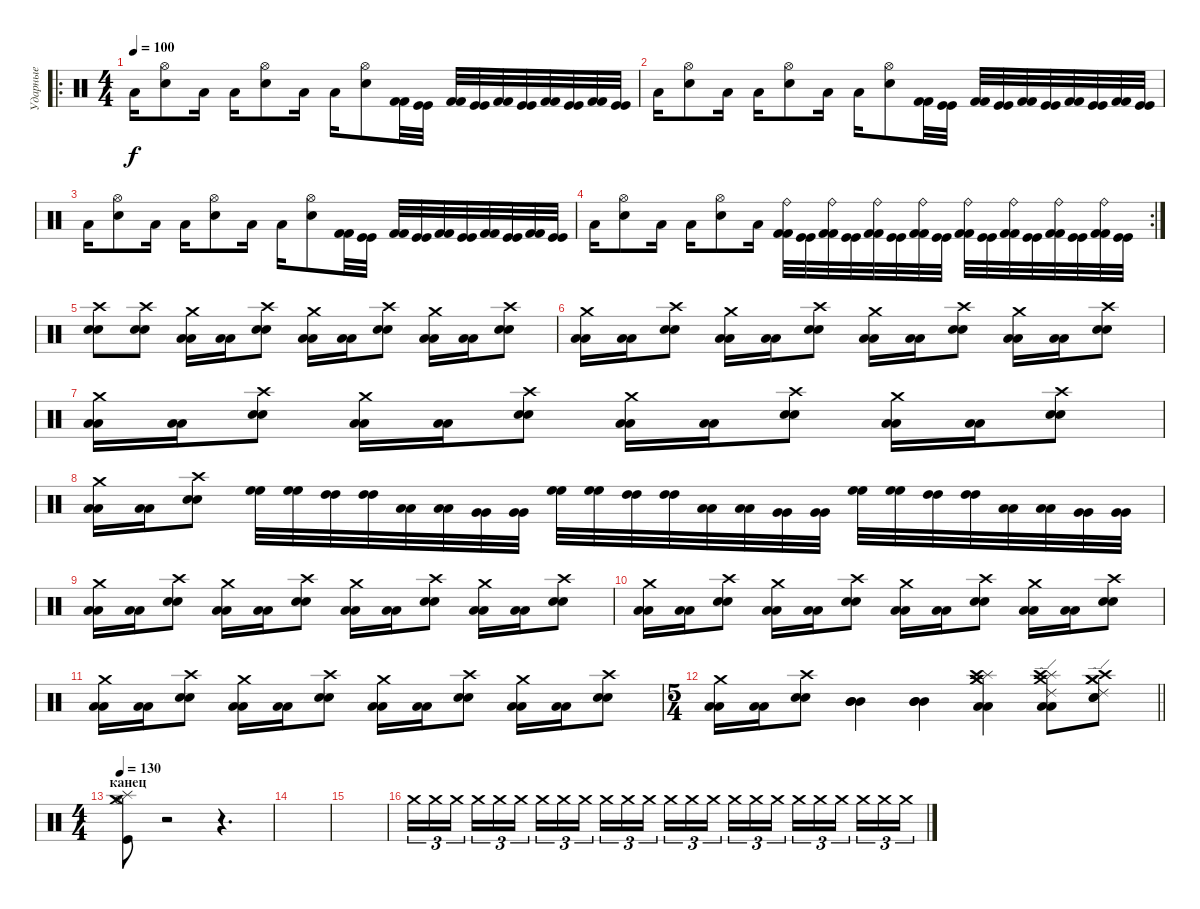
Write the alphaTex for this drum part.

\track ("Ударные" "Ударные") {instrument percussion}
\staff {score}
\articulation defaults
\ro
\ts (4 4)
\tempo 100
\clef neutral
\ks c "Low Tom (hit)".16{dy f}
("Hi-Hat (open)" "Electric Snare (hit)").8 "Low Tom (hit)".16 "Low Tom (hit)".16 ("Hi-Hat (open)" "Electric Snare (hit)").8 "Low Tom (hit)".16 "Low Tom (hit)".16 ("Hi-Hat (open)" "Electric Snare (hit)").8 ("Kick (hit) 2" "Kick (hit) 2").32 ("Kick (hit)" "Kick (hit)").32 ("Kick (hit) 2" "Kick (hit) 2").32 ("Kick (hit)" "Kick (hit)").32 ("Kick (hit) 2" "Kick (hit) 2").32 ("Kick (hit)" "Kick (hit)").32 ("Kick (hit) 2" "Kick (hit) 2").32 ("Kick (hit)" "Kick (hit)").32 ("Kick (hit) 2" "Kick (hit) 2").32 ("Kick (hit)" "Kick (hit)").32 |
"Low Tom (hit)".16 ("Hi-Hat (open)" "Electric Snare (hit)").8 "Low Tom (hit)".16 "Low Tom (hit)".16 ("Hi-Hat (open)" "Electric Snare (hit)").8 "Low Tom (hit)".16 "Low Tom (hit)".16 ("Hi-Hat (open)" "Electric Snare (hit)").8 ("Kick (hit) 2" "Kick (hit) 2").32 ("Kick (hit)" "Kick (hit)").32 ("Kick (hit) 2" "Kick (hit) 2").32 ("Kick (hit)" "Kick (hit)").32 ("Kick (hit) 2" "Kick (hit) 2").32 ("Kick (hit)" "Kick (hit)").32 ("Kick (hit) 2" "Kick (hit) 2").32 ("Kick (hit)" "Kick (hit)").32 ("Kick (hit) 2" "Kick (hit) 2").32 ("Kick (hit)" "Kick (hit)").32 |
"Low Tom (hit)".16 ("Hi-Hat (open)" "Electric Snare (hit)").8 "Low Tom (hit)".16 "Low Tom (hit)".16 ("Hi-Hat (open)" "Electric Snare (hit)").8 "Low Tom (hit)".16 "Low Tom (hit)".16 ("Hi-Hat (open)" "Electric Snare (hit)").8 ("Kick (hit) 2" "Kick (hit) 2").32 ("Kick (hit)" "Kick (hit)").32 ("Kick (hit) 2" "Kick (hit) 2").32 ("Kick (hit)" "Kick (hit)").32 ("Kick (hit) 2" "Kick (hit) 2").32 ("Kick (hit)" "Kick (hit)").32 ("Kick (hit) 2" "Kick (hit) 2").32 ("Kick (hit)" "Kick (hit)").32 ("Kick (hit) 2" "Kick (hit) 2").32 ("Kick (hit)" "Kick (hit)").32 |
\rc 2 "Low Tom (hit)".16
("Hi-Hat (open)" "Electric Snare (hit)").8 "Low Tom (hit)".16 "Low Tom (hit)".16 ("Hi-Hat (open)" "Electric Snare (hit)").8 "Low Tom (hit)".16 ("Ride (bell)" "Kick (hit) 2" "Kick (hit) 2").32 ("Kick (hit)" "Kick (hit)").32 ("Ride (bell)" "Kick (hit) 2" "Kick (hit) 2").32 ("Kick (hit)" "Kick (hit)").32 ("Ride (bell)" "Kick (hit) 2" "Kick (hit) 2").32 ("Kick (hit)" "Kick (hit)").32 ("Ride (bell)" "Kick (hit) 2" "Kick (hit) 2").32 ("Kick (hit)" "Kick (hit)").32 ("Ride (bell)" "Kick (hit) 2" "Kick (hit) 2").32 ("Kick (hit)" "Kick (hit)").32 ("Ride (bell)" "Kick (hit) 2" "Kick (hit) 2").32 ("Kick (hit)" "Kick (hit)").32 ("Ride (bell)" "Kick (hit) 2" "Kick (hit) 2").32 ("Kick (hit)" "Kick (hit)").32 ("Ride (bell)" "Kick (hit) 2" "Kick (hit) 2").32 ("Kick (hit)" "Kick (hit)").32 |
("Crash high (hit)" "Electric Snare (hit)" "Electric Snare (hit)").8 ("Crash high (hit)" "Electric Snare (hit)" "Electric Snare (hit)").8 ("Crash medium (hit)" "Low Tom (hit)" "Low Tom (hit)").16 ("Low Tom (hit)" "Low Tom (hit)").16 ("Crash high (hit)" "Electric Snare (hit)" "Electric Snare (hit)").8 ("Crash medium (hit)" "Low Tom (hit)" "Low Tom (hit)").16 ("Low Tom (hit)" "Low Tom (hit)").16 ("Crash high (hit)" "Electric Snare (hit)" "Electric Snare (hit)").8 ("Crash medium (hit)" "Low Tom (hit)" "Low Tom (hit)").16 ("Low Tom (hit)" "Low Tom (hit)").16 ("Crash high (hit)" "Electric Snare (hit)" "Electric Snare (hit)").8 |
("Crash medium (hit)" "Low Tom (hit)" "Low Tom (hit)").16 ("Low Tom (hit)" "Low Tom (hit)").16 ("Crash high (hit)" "Electric Snare (hit)" "Electric Snare (hit)").8 ("Crash medium (hit)" "Low Tom (hit)" "Low Tom (hit)").16 ("Low Tom (hit)" "Low Tom (hit)").16 ("Crash high (hit)" "Electric Snare (hit)" "Electric Snare (hit)").8 ("Crash medium (hit)" "Low Tom (hit)" "Low Tom (hit)").16 ("Low Tom (hit)" "Low Tom (hit)").16 ("Crash high (hit)" "Electric Snare (hit)" "Electric Snare (hit)").8 ("Crash medium (hit)" "Low Tom (hit)" "Low Tom (hit)").16 ("Low Tom (hit)" "Low Tom (hit)").16 ("Crash high (hit)" "Electric Snare (hit)" "Electric Snare (hit)").8 |
("Crash medium (hit)" "Low Tom (hit)" "Low Tom (hit)").16 ("Low Tom (hit)" "Low Tom (hit)").16 ("Crash high (hit)" "Electric Snare (hit)" "Electric Snare (hit)").8 ("Crash medium (hit)" "Low Tom (hit)" "Low Tom (hit)").16 ("Low Tom (hit)" "Low Tom (hit)").16 ("Crash high (hit)" "Electric Snare (hit)" "Electric Snare (hit)").8 ("Crash medium (hit)" "Low Tom (hit)" "Low Tom (hit)").16 ("Low Tom (hit)" "Low Tom (hit)").16 ("Crash high (hit)" "Electric Snare (hit)" "Electric Snare (hit)").8 ("Crash medium (hit)" "Low Tom (hit)" "Low Tom (hit)").16 ("Low Tom (hit)" "Low Tom (hit)").16 ("Crash high (hit)" "Electric Snare (hit)" "Electric Snare (hit)").8 |
("Crash medium (hit)" "Low Tom (hit)" "Low Tom (hit)").16 ("Low Tom (hit)" "Low Tom (hit)").16 ("Crash high (hit)" "Electric Snare (hit)" "Electric Snare (hit)").8 ("High Floor Tom (hit)" "High Floor Tom (hit)").32 ("High Floor Tom (hit)" "High Floor Tom (hit)").32 ("High Tom (hit)" "High Tom (hit)").32 ("High Tom (hit)" "High Tom (hit)").32 ("Low Tom (hit)" "Low Tom (hit)").32 ("Low Tom (hit)" "Low Tom (hit)").32 ("Very Low Tom (hit)" "Very Low Tom (hit)").32 ("Very Low Tom (hit)" "Very Low Tom (hit)").32 ("High Floor Tom (hit)" "High Floor Tom (hit)").32 ("High Floor Tom (hit)" "High Floor Tom (hit)").32 ("High Tom (hit)" "High Tom (hit)").32 ("High Tom (hit)" "High Tom (hit)").32 ("Low Tom (hit)" "Low Tom (hit)").32 ("Low Tom (hit)" "Low Tom (hit)").32 ("Very Low Tom (hit)" "Very Low Tom (hit)").32 ("Very Low Tom (hit)" "Very Low Tom (hit)").32 ("High Floor Tom (hit)" "High Floor Tom (hit)").32 ("High Floor Tom (hit)" "High Floor Tom (hit)").32 ("High Tom (hit)" "High Tom (hit)").32 ("High Tom (hit)" "High Tom (hit)").32 ("Low Tom (hit)" "Low Tom (hit)").32 ("Low Tom (hit)" "Low Tom (hit)").32 ("Very Low Tom (hit)" "Very Low Tom (hit)").32 ("Very Low Tom (hit)" "Very Low Tom (hit)").32 |
("Crash medium (hit)" "Low Tom (hit)" "Low Tom (hit)").16 ("Low Tom (hit)" "Low Tom (hit)").16 ("Crash high (hit)" "Electric Snare (hit)" "Electric Snare (hit)").8 ("Crash medium (hit)" "Low Tom (hit)" "Low Tom (hit)").16 ("Low Tom (hit)" "Low Tom (hit)").16 ("Crash high (hit)" "Electric Snare (hit)" "Electric Snare (hit)").8 ("Crash medium (hit)" "Low Tom (hit)" "Low Tom (hit)").16 ("Low Tom (hit)" "Low Tom (hit)").16 ("Crash high (hit)" "Electric Snare (hit)" "Electric Snare (hit)").8 ("Crash medium (hit)" "Low Tom (hit)" "Low Tom (hit)").16 ("Low Tom (hit)" "Low Tom (hit)").16 ("Crash high (hit)" "Electric Snare (hit)" "Electric Snare (hit)").8 |
("Crash medium (hit)" "Low Tom (hit)" "Low Tom (hit)").16 ("Low Tom (hit)" "Low Tom (hit)").16 ("Crash high (hit)" "Electric Snare (hit)" "Electric Snare (hit)").8 ("Crash medium (hit)" "Low Tom (hit)" "Low Tom (hit)").16 ("Low Tom (hit)" "Low Tom (hit)").16 ("Crash high (hit)" "Electric Snare (hit)" "Electric Snare (hit)").8 ("Crash medium (hit)" "Low Tom (hit)" "Low Tom (hit)").16 ("Low Tom (hit)" "Low Tom (hit)").16 ("Crash high (hit)" "Electric Snare (hit)" "Electric Snare (hit)").8 ("Crash medium (hit)" "Low Tom (hit)" "Low Tom (hit)").16 ("Low Tom (hit)" "Low Tom (hit)").16 ("Crash high (hit)" "Electric Snare (hit)" "Electric Snare (hit)").8 |
("Crash medium (hit)" "Low Tom (hit)" "Low Tom (hit)").16 ("Low Tom (hit)" "Low Tom (hit)").16 ("Crash high (hit)" "Electric Snare (hit)" "Electric Snare (hit)").8 ("Crash medium (hit)" "Low Tom (hit)" "Low Tom (hit)").16 ("Low Tom (hit)" "Low Tom (hit)").16 ("Crash high (hit)" "Electric Snare (hit)" "Electric Snare (hit)").8 ("Crash medium (hit)" "Low Tom (hit)" "Low Tom (hit)").16 ("Low Tom (hit)" "Low Tom (hit)").16 ("Crash high (hit)" "Electric Snare (hit)" "Electric Snare (hit)").8 ("Crash medium (hit)" "Low Tom (hit)" "Low Tom (hit)").16 ("Low Tom (hit)" "Low Tom (hit)").16 ("Crash high (hit)" "Electric Snare (hit)" "Electric Snare (hit)").8 |
\ts (5 4)
\barLineRight lightlight
("Crash medium (hit)" "Low Tom (hit)" "Low Tom (hit)").16 ("Low Tom (hit)" "Low Tom (hit)").16 ("Crash high (hit)" "Electric Snare (hit)" "Electric Snare (hit)").8 ("Mid Tom (hit)" "Mid Tom (hit)" "Mid Tom (hit)").4 ("Mid Tom (hit)" "Mid Tom (hit)" "Mid Tom (hit)").4 ("Splash (hit)" "Crash medium (hit)" "Low Tom (hit)" "Low Tom (hit)" "Crash medium (hit)" "Crash high (hit)").4 ("Splash (hit)" "Crash medium (hit)" "Low Tom (hit)" "Low Tom (hit)" "Crash high (hit)" "Ride (edge) 2").8 ("Ride (edge) 2" "Crash medium (hit)" "Electric Snare (hit)" "Electric Snare (hit)" "Crash high (hit)" "Crash medium (hit)").8 |
\ts (4 4)
\section ("" "канец")
\tempo 130
("Crash medium (hit)" "Splash (hit)" "Hi-Hat (open)" "Kick (hit)").8 r.2 r.4{d} |
|
|
"Crash medium (hit)".16{tu (3 2) volume 12} "Crash medium (hit)".16{tu (3 2)} "Crash medium (hit)".16{tu (3 2) beam splitsecondary} "Crash medium (hit)".16{tu (3 2)} "Crash medium (hit)".16{tu (3 2)} "Crash medium (hit)".16{tu (3 2)} "Crash medium (hit)".16{tu (3 2)} "Crash medium (hit)".16{tu (3 2)} "Crash medium (hit)".16{tu (3 2) beam splitsecondary} "Crash medium (hit)".16{tu (3 2)} "Crash medium (hit)".16{tu (3 2)} "Crash medium (hit)".16{tu (3 2)} "Crash medium (hit)".16{tu (3 2)} "Crash medium (hit)".16{tu (3 2)} "Crash medium (hit)".16{tu (3 2) beam splitsecondary} "Crash medium (hit)".16{tu (3 2)} "Crash medium (hit)".16{tu (3 2)} "Crash medium (hit)".16{tu (3 2)} "Crash medium (hit)".16{tu (3 2)} "Crash medium (hit)".16{tu (3 2)} "Crash medium (hit)".16{tu (3 2) beam splitsecondary} "Crash medium (hit)".16{tu (3 2)} "Crash medium (hit)".16{tu (3 2)} "Crash medium (hit)".16{tu (3 2)}
